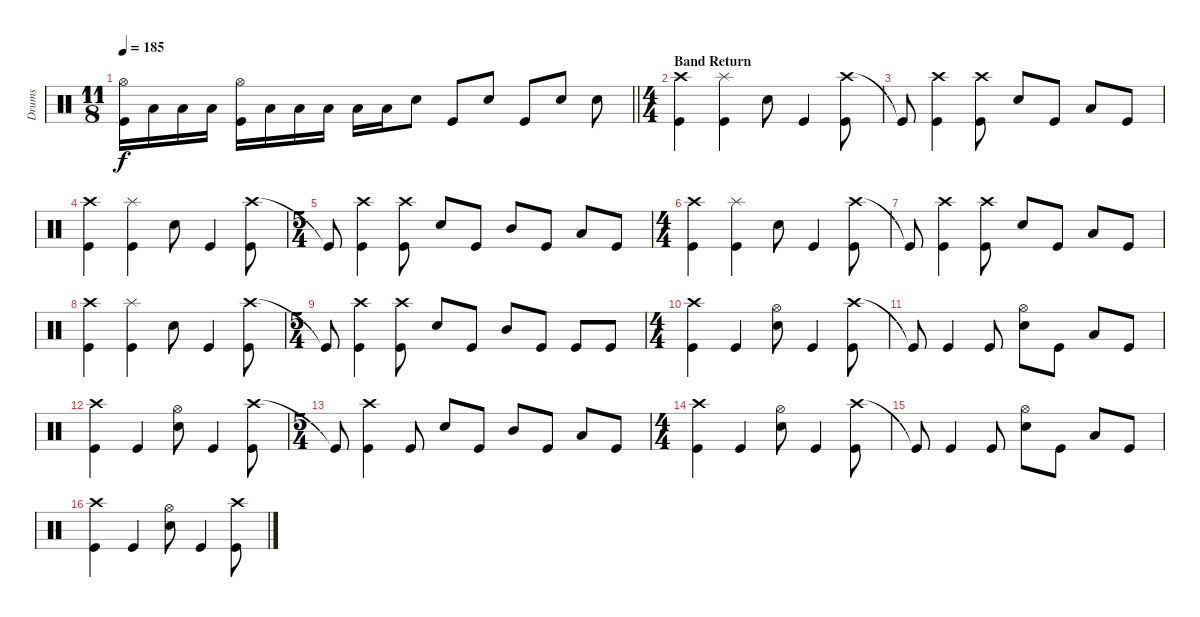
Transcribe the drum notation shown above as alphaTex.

\track ("Drums" "Drums") {instrument percussion}
\staff {score}
\articulation defaults
\ts (11 8)
\tempo 185
\clef neutral
\barLineRight lightlight
\ks c
("Hi-Hat (open)" "Kick (hit)").16{dy f} "Low Tom (hit)".16 "Low Tom (hit)".16 "Low Tom (hit)".16 ("Hi-Hat (open)" "Kick (hit)").16 "Low Tom (hit)".16 "Low Tom (hit)".16 "Low Tom (hit)".16 "Low Tom (hit)".16 "Low Tom (hit)".16 "Snare (hit) 2".8 "Kick (hit)".8 "Snare (hit) 2".8 "Kick (hit)".8 "Snare (hit) 2".8 "Snare (hit) 2".8 |
\ts (4 4)
\section ("" "Band Return")
("Crash high (hit)" "Kick (hit)").4 ("Splash (hit)" "Kick (hit)").4 "Snare (hit) 2".8 "Kick (hit)".4 ("Crash high (hit)" "Kick (hit)").8 |
"Kick (hit)"{t}.8 ("Crash high (hit)" "Kick (hit)").4 ("Crash high (hit)" "Kick (hit)").8 "Snare (hit) 2".8 "Kick (hit)".8 "Low Tom (hit)".8 "Kick (hit)".8 |
("Crash high (hit)" "Kick (hit)").4 ("Splash (hit)" "Kick (hit)").4 "Snare (hit) 2".8 "Kick (hit)".4 ("Crash high (hit)" "Kick (hit)").8 |
\ts (5 4)
"Kick (hit)"{t}.8 ("Crash high (hit)" "Kick (hit)").4 ("Crash high (hit)" "Kick (hit)").8 "Snare (hit) 2".8 "Kick (hit)".8 "Mid Tom (hit)".8 "Kick (hit)".8 "Low Tom (hit)".8 "Kick (hit)".8 |
\ts (4 4)
("Crash high (hit)" "Kick (hit)").4 ("Splash (hit)" "Kick (hit)").4 "Snare (hit) 2".8 "Kick (hit)".4 ("Crash high (hit)" "Kick (hit)").8 |
"Kick (hit)"{t}.8 ("Crash high (hit)" "Kick (hit)").4 ("Crash high (hit)" "Kick (hit)").8 "Snare (hit) 2".8 "Kick (hit)".8 "Low Tom (hit)".8 "Kick (hit)".8 |
("Crash high (hit)" "Kick (hit)").4 ("Splash (hit)" "Kick (hit)").4 "Snare (hit) 2".8 "Kick (hit)".4 ("Crash high (hit)" "Kick (hit)").8 |
\ts (5 4)
"Kick (hit)"{t}.8 ("Crash high (hit)" "Kick (hit)").4 ("Crash high (hit)" "Kick (hit)").8 "Snare (hit) 2".8 "Kick (hit)".8 "Mid Tom (hit)".8 "Kick (hit)".8 "Kick (hit)".8 "Kick (hit)".8 |
\ts (4 4)
("Crash high (hit)" "Kick (hit)").4 "Kick (hit)".4 ("Hi-Hat (open)" "Snare (hit) 2").8 "Kick (hit)".4 ("Crash high (hit)" "Kick (hit)").8 |
"Kick (hit)"{t}.8 "Kick (hit)".4 "Kick (hit)".8 ("Hi-Hat (open)" "Snare (hit) 2").8 "Kick (hit)".8 "Low Tom (hit)".8 "Kick (hit)".8 |
("Crash high (hit)" "Kick (hit)").4 "Kick (hit)".4 ("Hi-Hat (open)" "Snare (hit) 2").8 "Kick (hit)".4 ("Crash high (hit)" "Kick (hit)").8 |
\ts (5 4)
"Kick (hit)"{t}.8 ("Crash high (hit)" "Kick (hit)").4 "Kick (hit)".8 "Snare (hit) 2".8 "Kick (hit)".8 "Mid Tom (hit)".8 "Kick (hit)".8 "Low Tom (hit)".8 "Kick (hit)".8 |
\ts (4 4)
("Crash high (hit)" "Kick (hit)").4 "Kick (hit)".4 ("Hi-Hat (open)" "Snare (hit) 2").8 "Kick (hit)".4 ("Crash high (hit)" "Kick (hit)").8 |
"Kick (hit)"{t}.8 "Kick (hit)".4 "Kick (hit)".8 ("Hi-Hat (open)" "Snare (hit) 2").8 "Kick (hit)".8 "Low Tom (hit)".8 "Kick (hit)".8 |
("Crash high (hit)" "Kick (hit)").4 "Kick (hit)".4 ("Hi-Hat (open)" "Snare (hit) 2").8 "Kick (hit)".4 ("Crash high (hit)" "Kick (hit)").8
